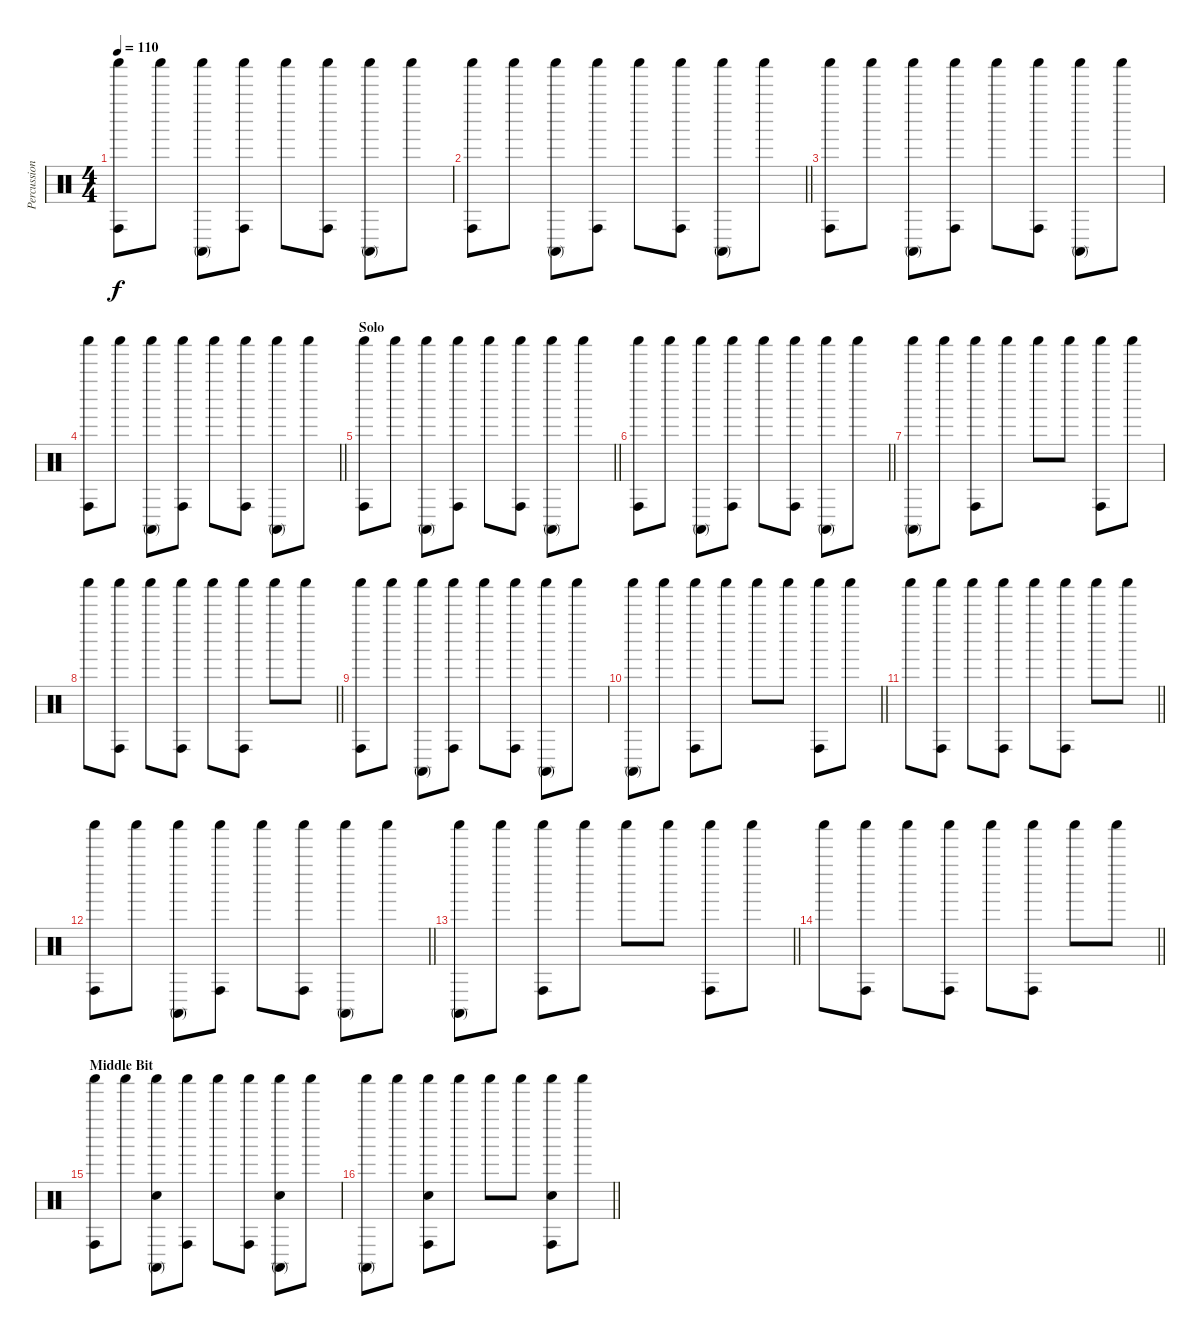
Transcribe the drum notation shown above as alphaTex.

\track ("Percussion" "Percussion") {instrument percussion}
\staff {score}
\articulation defaults
\ts (4 4)
\tempo 110
\clef neutral
\ks c
("Conga high (hit)" "Shaker (hit)").8{dy f} "Shaker (hit)".8 ("Conga high (mute)" "Shaker (hit)").8 ("Conga high (hit)" "Shaker (hit)").8 "Shaker (hit)".8 ("Conga high (hit)" "Shaker (hit)").8 ("Conga high (mute)" "Shaker (hit)").8 "Shaker (hit)".8 |
\barLineRight lightlight
("Conga high (hit)" "Shaker (hit)").8 "Shaker (hit)".8 ("Conga high (mute)" "Shaker (hit)").8 ("Conga high (hit)" "Shaker (hit)").8 "Shaker (hit)".8 ("Conga high (hit)" "Shaker (hit)").8 ("Conga high (mute)" "Shaker (hit)").8 "Shaker (hit)".8 |
("Conga high (hit)" "Shaker (hit)").8 "Shaker (hit)".8 ("Conga high (mute)" "Shaker (hit)").8 ("Conga high (hit)" "Shaker (hit)").8 "Shaker (hit)".8 ("Conga high (hit)" "Shaker (hit)").8 ("Conga high (mute)" "Shaker (hit)").8 "Shaker (hit)".8 |
\barLineRight lightlight
("Conga high (hit)" "Shaker (hit)").8 "Shaker (hit)".8 ("Conga high (mute)" "Shaker (hit)").8 ("Conga high (hit)" "Shaker (hit)").8 "Shaker (hit)".8 ("Conga high (hit)" "Shaker (hit)").8 ("Conga high (mute)" "Shaker (hit)").8 "Shaker (hit)".8 |
\section ("" "Solo")
\barLineRight lightlight
("Conga high (hit)" "Shaker (hit)").8 "Shaker (hit)".8 ("Conga high (mute)" "Shaker (hit)").8 ("Conga high (hit)" "Shaker (hit)").8 "Shaker (hit)".8 ("Conga high (hit)" "Shaker (hit)").8 ("Conga high (mute)" "Shaker (hit)").8 "Shaker (hit)".8 |
\barLineRight lightlight
("Conga high (hit)" "Shaker (hit)").8 "Shaker (hit)".8 ("Conga high (mute)" "Shaker (hit)").8 ("Conga high (hit)" "Shaker (hit)").8 "Shaker (hit)".8 ("Conga high (hit)" "Shaker (hit)").8 ("Conga high (mute)" "Shaker (hit)").8 "Shaker (hit)".8 |
("Conga high (mute)" "Shaker (hit)").8 "Shaker (hit)".8 ("Conga high (hit)" "Shaker (hit)").8 "Shaker (hit)".8 "Shaker (hit)".8 "Shaker (hit)".8 ("Conga high (hit)" "Shaker (hit)").8 "Shaker (hit)".8 |
\barLineRight lightlight "Shaker (hit)".8
("Conga high (hit)" "Shaker (hit)").8 "Shaker (hit)".8 ("Conga high (hit)" "Shaker (hit)").8 "Shaker (hit)".8 ("Conga high (hit)" "Shaker (hit)").8 "Shaker (hit)".8 "Shaker (hit)".8 |
("Conga high (hit)" "Shaker (hit)").8 "Shaker (hit)".8 ("Conga high (mute)" "Shaker (hit)").8 ("Conga high (hit)" "Shaker (hit)").8 "Shaker (hit)".8 ("Conga high (hit)" "Shaker (hit)").8 ("Conga high (mute)" "Shaker (hit)").8 "Shaker (hit)".8 |
\barLineRight lightlight
("Conga high (mute)" "Shaker (hit)").8 "Shaker (hit)".8 ("Conga high (hit)" "Shaker (hit)").8 "Shaker (hit)".8 "Shaker (hit)".8 "Shaker (hit)".8 ("Conga high (hit)" "Shaker (hit)").8 "Shaker (hit)".8 |
\barLineRight lightlight "Shaker (hit)".8
("Conga high (hit)" "Shaker (hit)").8 "Shaker (hit)".8 ("Conga high (hit)" "Shaker (hit)").8 "Shaker (hit)".8 ("Conga high (hit)" "Shaker (hit)").8 "Shaker (hit)".8 "Shaker (hit)".8 |
\barLineRight lightlight
("Conga high (hit)" "Shaker (hit)").8 "Shaker (hit)".8 ("Conga high (mute)" "Shaker (hit)").8 ("Conga high (hit)" "Shaker (hit)").8 "Shaker (hit)".8 ("Conga high (hit)" "Shaker (hit)").8 ("Conga high (mute)" "Shaker (hit)").8 "Shaker (hit)".8 |
\barLineRight lightlight
("Conga high (mute)" "Shaker (hit)").8 "Shaker (hit)".8 ("Conga high (hit)" "Shaker (hit)").8 "Shaker (hit)".8 "Shaker (hit)".8 "Shaker (hit)".8 ("Conga high (hit)" "Shaker (hit)").8 "Shaker (hit)".8 |
\barLineRight lightlight "Shaker (hit)".8
("Conga high (hit)" "Shaker (hit)").8 "Shaker (hit)".8 ("Conga high (hit)" "Shaker (hit)").8 "Shaker (hit)".8 ("Conga high (hit)" "Shaker (hit)").8 "Shaker (hit)".8 "Shaker (hit)".8 |
\section ("" "Middle Bit")
("Conga high (hit)" "Shaker (hit)").8 "Shaker (hit)".8 ("Conga high (mute)" "Hand Clap (hit)" "Shaker (hit)").8 ("Conga high (hit)" "Shaker (hit)").8 "Shaker (hit)".8 ("Conga high (hit)" "Shaker (hit)").8 ("Conga high (mute)" "Hand Clap (hit)" "Shaker (hit)").8 "Shaker (hit)".8 |
\barLineRight lightlight
("Conga high (mute)" "Shaker (hit)").8 "Shaker (hit)".8 ("Conga high (hit)" "Hand Clap (hit)" "Shaker (hit)").8 "Shaker (hit)".8 "Shaker (hit)".8 "Shaker (hit)".8 ("Conga high (hit)" "Hand Clap (hit)" "Shaker (hit)").8 "Shaker (hit)".8
